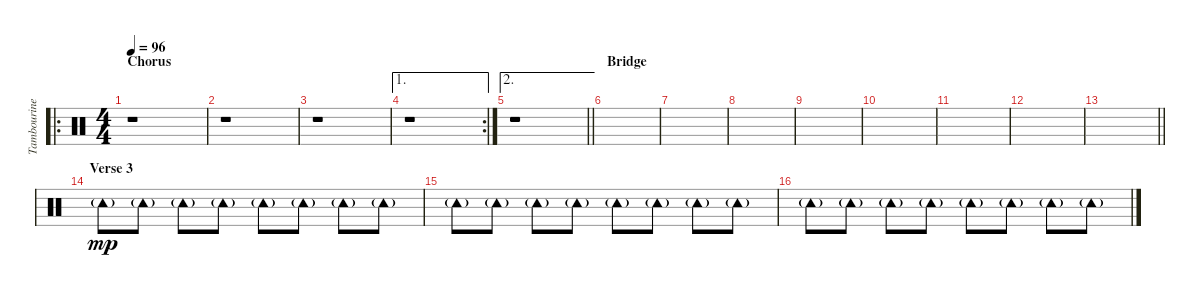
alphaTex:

\track ("Tambourine" "Tambourine") {instrument percussion}
\staff {score}
\articulation defaults
\ro
\ts (4 4)
\section ("" "Chorus")
\tempo 96
\clef neutral
\ks c
r.1{dy mp} |
r.1 |
r.1 |
\ae 1
\rc 2
r.1 |
\ae 2
\barLineRight lightlight
r.1 |
\section ("" "Bridge")
|
|
|
|
|
|
|
\barLineRight lightlight
|
\section ("" "Verse 3")
"Tambourine (hit)"{g}.8 "Tambourine (hit)"{g}.8 "Tambourine (hit)"{g}.8 "Tambourine (hit)"{g}.8 "Tambourine (hit)"{g}.8 "Tambourine (hit)"{g}.8 "Tambourine (hit)"{g}.8 "Tambourine (hit)"{g}.8 |
"Tambourine (hit)"{g}.8 "Tambourine (hit)"{g}.8 "Tambourine (hit)"{g}.8 "Tambourine (hit)"{g}.8 "Tambourine (hit)"{g}.8 "Tambourine (hit)"{g}.8 "Tambourine (hit)"{g}.8 "Tambourine (hit)"{g}.8 |
"Tambourine (hit)"{g}.8 "Tambourine (hit)"{g}.8 "Tambourine (hit)"{g}.8 "Tambourine (hit)"{g}.8 "Tambourine (hit)"{g}.8 "Tambourine (hit)"{g}.8 "Tambourine (hit)"{g}.8 "Tambourine (hit)"{g}.8
